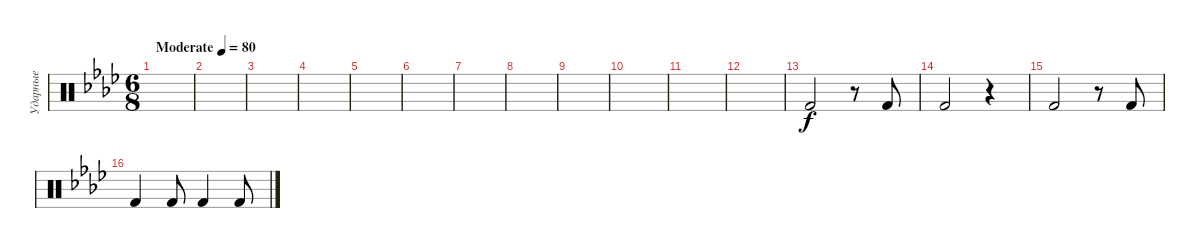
\track ("Ударные" "Ударные") {instrument percussion}
\staff {score}
\articulation defaults
\ts (6 8)
\tempo (80 "Moderate")
\clef neutral
\ks fminor
|
|
|
|
|
|
|
|
|
|
|
|
"Kick (hit) 2".2 r.8 "Kick (hit) 2".8 |
"Kick (hit) 2".2 r.4 |
"Kick (hit) 2".2 r.8 "Kick (hit) 2".8 |
"Kick (hit) 2".4 "Kick (hit) 2".8 "Kick (hit) 2".4 "Kick (hit) 2".8
